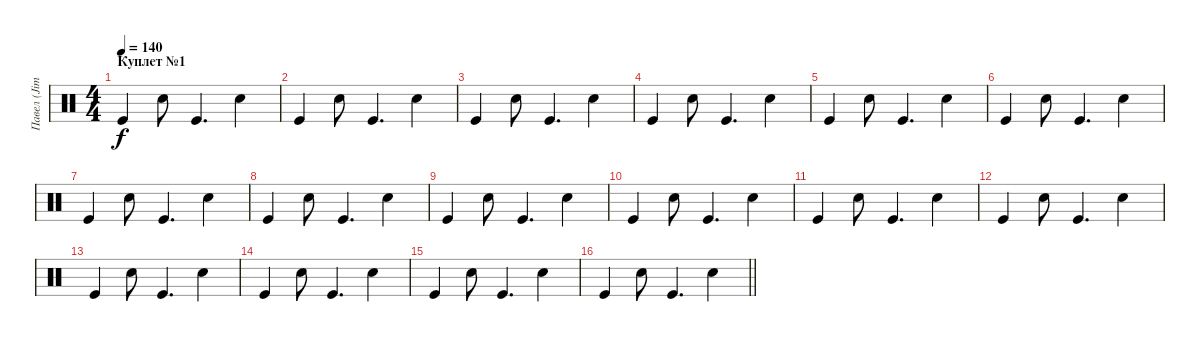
\track ("Павел (Jimmy) Лохнин" "Павел (Jim") {instrument percussion}
\staff {score}
\articulation defaults
\ts (4 4)
\section ("" "Куплет №1")
\tempo 140
\clef neutral
\ks c "Kick (hit)".4{dy f} "Snare (hit) 2".8 "Kick (hit)".4{d} "Snare (hit) 2".4
|
"Kick (hit)".4 "Snare (hit) 2".8 "Kick (hit)".4{d} "Snare (hit) 2".4 |
"Kick (hit)".4 "Snare (hit) 2".8 "Kick (hit)".4{d} "Snare (hit) 2".4 |
"Kick (hit)".4 "Snare (hit) 2".8 "Kick (hit)".4{d} "Snare (hit) 2".4 |
"Kick (hit)".4 "Snare (hit) 2".8 "Kick (hit)".4{d} "Snare (hit) 2".4 |
"Kick (hit)".4 "Snare (hit) 2".8 "Kick (hit)".4{d} "Snare (hit) 2".4 |
"Kick (hit)".4 "Snare (hit) 2".8 "Kick (hit)".4{d} "Snare (hit) 2".4 |
"Kick (hit)".4 "Snare (hit) 2".8 "Kick (hit)".4{d} "Snare (hit) 2".4 |
"Kick (hit)".4 "Snare (hit) 2".8 "Kick (hit)".4{d} "Snare (hit) 2".4 |
"Kick (hit)".4 "Snare (hit) 2".8 "Kick (hit)".4{d} "Snare (hit) 2".4 |
"Kick (hit)".4 "Snare (hit) 2".8 "Kick (hit)".4{d} "Snare (hit) 2".4 |
"Kick (hit)".4 "Snare (hit) 2".8 "Kick (hit)".4{d} "Snare (hit) 2".4 |
"Kick (hit)".4 "Snare (hit) 2".8 "Kick (hit)".4{d} "Snare (hit) 2".4 |
"Kick (hit)".4 "Snare (hit) 2".8 "Kick (hit)".4{d} "Snare (hit) 2".4 |
"Kick (hit)".4 "Snare (hit) 2".8 "Kick (hit)".4{d} "Snare (hit) 2".4 |
\barLineRight lightlight "Kick (hit)".4 "Snare (hit) 2".8 "Kick (hit)".4{d} "Snare (hit) 2".4
